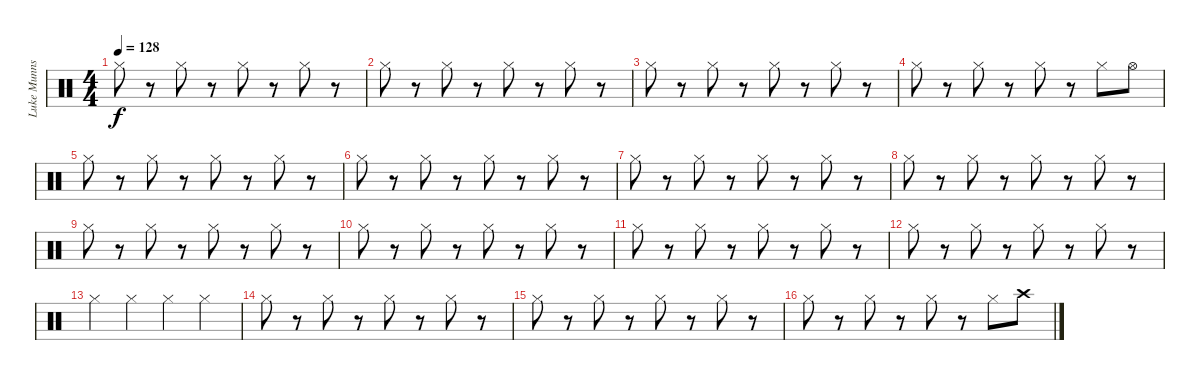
\track ("Luke Munns" "Luke Munns") {instrument percussion}
\staff {score}
\articulation defaults
\ts (4 4)
\tempo 128
\clef neutral
\ks c "Hi-Hat (closed)".8{dy f}
r.8 "Hi-Hat (closed)".8 r.8 "Hi-Hat (closed)".8 r.8 "Hi-Hat (closed)".8 r.8 |
"Hi-Hat (closed)".8 r.8 "Hi-Hat (closed)".8 r.8 "Hi-Hat (closed)".8 r.8 "Hi-Hat (closed)".8 r.8 |
"Hi-Hat (closed)".8 r.8 "Hi-Hat (closed)".8 r.8 "Hi-Hat (closed)".8 r.8 "Hi-Hat (closed)".8 r.8 |
"Hi-Hat (closed)".8 r.8 "Hi-Hat (closed)".8 r.8 "Hi-Hat (closed)".8 r.8 "Hi-Hat (closed)".8 "Hi-Hat (open)".8 |
"Hi-Hat (closed)".8 r.8 "Hi-Hat (closed)".8 r.8 "Hi-Hat (closed)".8 r.8 "Hi-Hat (closed)".8 r.8 |
"Hi-Hat (closed)".8 r.8 "Hi-Hat (closed)".8 r.8 "Hi-Hat (closed)".8 r.8 "Hi-Hat (closed)".8 r.8 |
"Hi-Hat (closed)".8 r.8 "Hi-Hat (closed)".8 r.8 "Hi-Hat (closed)".8 r.8 "Hi-Hat (closed)".8 r.8 |
"Hi-Hat (closed)".8 r.8 "Hi-Hat (closed)".8 r.8 "Hi-Hat (closed)".8 r.8 "Hi-Hat (closed)".8 r.8 |
"Hi-Hat (closed)".8 r.8 "Hi-Hat (closed)".8 r.8 "Hi-Hat (closed)".8 r.8 "Hi-Hat (closed)".8 r.8 |
"Hi-Hat (closed)".8 r.8 "Hi-Hat (closed)".8 r.8 "Hi-Hat (closed)".8 r.8 "Hi-Hat (closed)".8 r.8 |
"Hi-Hat (closed)".8 r.8 "Hi-Hat (closed)".8 r.8 "Hi-Hat (closed)".8 r.8 "Hi-Hat (closed)".8 r.8 |
"Hi-Hat (closed)".8 r.8 "Hi-Hat (closed)".8 r.8 "Hi-Hat (closed)".8 r.8 "Hi-Hat (closed)".8 r.8 |
"Hi-Hat (closed)".4 "Hi-Hat (closed)".4 "Hi-Hat (closed)".4 "Hi-Hat (closed)".4 |
"Hi-Hat (closed)".8 r.8 "Hi-Hat (closed)".8 r.8 "Hi-Hat (closed)".8 r.8 "Hi-Hat (closed)".8 r.8 |
"Hi-Hat (closed)".8 r.8 "Hi-Hat (closed)".8 r.8 "Hi-Hat (closed)".8 r.8 "Hi-Hat (closed)".8 r.8 |
"Hi-Hat (closed)".8 r.8 "Hi-Hat (closed)".8 r.8 "Hi-Hat (closed)".8 r.8 "Hi-Hat (closed)".8 "Crash high (hit)".8
